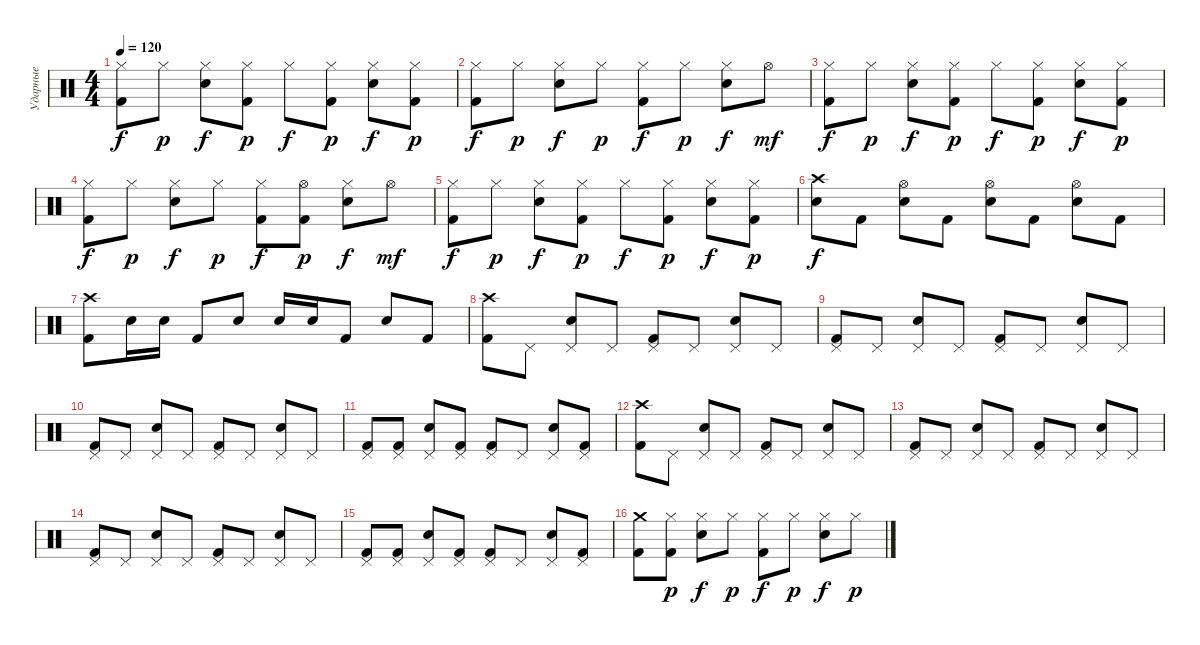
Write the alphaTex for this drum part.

\track ("Ударные" "Ударные") {instrument percussion}
\staff {score}
\articulation defaults
\ts (4 4)
\tempo 120
\clef neutral
\ks c
("Hi-Hat (closed)" "Kick (hit) 2").8{dy f} "Hi-Hat (closed)".8{dy p} ("Hi-Hat (closed)" "Electric Snare (hit)").8{dy f} ("Hi-Hat (closed)" "Kick (hit) 2").8{dy p} "Hi-Hat (closed)".8{dy f} ("Hi-Hat (closed)" "Kick (hit) 2").8{dy p} ("Hi-Hat (closed)" "Electric Snare (hit)").8{dy f} ("Hi-Hat (closed)" "Kick (hit) 2").8{dy p} |
("Hi-Hat (closed)" "Kick (hit) 2").8{dy f} "Hi-Hat (closed)".8{dy p} ("Hi-Hat (closed)" "Electric Snare (hit)").8{dy f} "Hi-Hat (closed)".8{dy p} ("Hi-Hat (closed)" "Kick (hit) 2").8{dy f} "Hi-Hat (closed)".8{dy p} ("Hi-Hat (closed)" "Electric Snare (hit)").8{dy f} "Hi-Hat (open)".8{dy mf} |
("Hi-Hat (closed)" "Kick (hit) 2").8{dy f} "Hi-Hat (closed)".8{dy p} ("Hi-Hat (closed)" "Electric Snare (hit)").8{dy f} ("Hi-Hat (closed)" "Kick (hit) 2").8{dy p} "Hi-Hat (closed)".8{dy f} ("Hi-Hat (closed)" "Kick (hit) 2").8{dy p} ("Hi-Hat (closed)" "Electric Snare (hit)").8{dy f} ("Hi-Hat (closed)" "Kick (hit) 2").8{dy p} |
("Hi-Hat (closed)" "Kick (hit) 2").8{dy f} "Hi-Hat (closed)".8{dy p} ("Hi-Hat (closed)" "Electric Snare (hit)").8{dy f} "Hi-Hat (closed)".8{dy p} ("Hi-Hat (closed)" "Kick (hit) 2").8{dy f} ("Hi-Hat (open)" "Kick (hit) 2").8{dy p} ("Hi-Hat (closed)" "Electric Snare (hit)").8{dy f} "Hi-Hat (open)".8{dy mf} |
("Hi-Hat (closed)" "Kick (hit) 2").8{dy f} "Hi-Hat (closed)".8{dy p} ("Hi-Hat (closed)" "Electric Snare (hit)").8{dy f} ("Hi-Hat (closed)" "Kick (hit) 2").8{dy p} "Hi-Hat (closed)".8{dy f} ("Hi-Hat (closed)" "Kick (hit) 2").8{dy p} ("Hi-Hat (closed)" "Electric Snare (hit)").8{dy f} ("Hi-Hat (closed)" "Kick (hit) 2").8{dy p} |
("Crash high (hit)" "Snare (hit) 2").8{dy f} "Kick (hit) 2".8 ("Hi-Hat (open)" "Snare (hit) 2").8 "Kick (hit) 2".8 ("Hi-Hat (open)" "Snare (hit) 2").8 "Kick (hit) 2".8 ("Hi-Hat (open)" "Snare (hit) 2").8 "Kick (hit) 2".8 |
("Crash high (hit)" "Kick (hit) 2").8 "Snare (hit) 2".16 "Snare (hit) 2".16 "Kick (hit) 2".8 "Snare (hit) 2".8 "Snare (hit) 2".16 "Snare (hit) 2".16 "Kick (hit) 2".8 "Snare (hit) 2".8 "Kick (hit) 2".8 |
("Crash high (hit)" "Kick (hit) 2").8 "Pedal Hi-Hat (hit)".8 ("Pedal Hi-Hat (hit)" "Electric Snare (hit)").8 "Pedal Hi-Hat (hit)".8 ("Pedal Hi-Hat (hit)" "Kick (hit) 2").8 "Pedal Hi-Hat (hit)".8 ("Pedal Hi-Hat (hit)" "Electric Snare (hit)").8 "Pedal Hi-Hat (hit)".8 |
("Pedal Hi-Hat (hit)" "Kick (hit) 2").8 "Pedal Hi-Hat (hit)".8 ("Pedal Hi-Hat (hit)" "Electric Snare (hit)").8 "Pedal Hi-Hat (hit)".8 ("Pedal Hi-Hat (hit)" "Kick (hit) 2").8 "Pedal Hi-Hat (hit)".8 ("Pedal Hi-Hat (hit)" "Electric Snare (hit)").8 "Pedal Hi-Hat (hit)".8 |
("Pedal Hi-Hat (hit)" "Kick (hit) 2").8 "Pedal Hi-Hat (hit)".8 ("Pedal Hi-Hat (hit)" "Electric Snare (hit)").8 "Pedal Hi-Hat (hit)".8 ("Pedal Hi-Hat (hit)" "Kick (hit) 2").8 "Pedal Hi-Hat (hit)".8 ("Pedal Hi-Hat (hit)" "Electric Snare (hit)").8 "Pedal Hi-Hat (hit)".8 |
("Pedal Hi-Hat (hit)" "Kick (hit) 2").8 ("Pedal Hi-Hat (hit)" "Kick (hit) 2").8 ("Pedal Hi-Hat (hit)" "Electric Snare (hit)").8 ("Pedal Hi-Hat (hit)" "Kick (hit) 2").8 ("Pedal Hi-Hat (hit)" "Kick (hit) 2").8 "Pedal Hi-Hat (hit)".8 ("Pedal Hi-Hat (hit)" "Electric Snare (hit)").8 ("Pedal Hi-Hat (hit)" "Kick (hit) 2").8 |
("Crash high (hit)" "Kick (hit) 2").8 "Pedal Hi-Hat (hit)".8 ("Pedal Hi-Hat (hit)" "Electric Snare (hit)").8 "Pedal Hi-Hat (hit)".8 ("Pedal Hi-Hat (hit)" "Kick (hit) 2").8 "Pedal Hi-Hat (hit)".8 ("Pedal Hi-Hat (hit)" "Electric Snare (hit)").8 "Pedal Hi-Hat (hit)".8 |
("Pedal Hi-Hat (hit)" "Kick (hit) 2").8 "Pedal Hi-Hat (hit)".8 ("Pedal Hi-Hat (hit)" "Electric Snare (hit)").8 "Pedal Hi-Hat (hit)".8 ("Pedal Hi-Hat (hit)" "Kick (hit) 2").8 "Pedal Hi-Hat (hit)".8 ("Pedal Hi-Hat (hit)" "Electric Snare (hit)").8 "Pedal Hi-Hat (hit)".8 |
("Pedal Hi-Hat (hit)" "Kick (hit) 2").8 "Pedal Hi-Hat (hit)".8 ("Pedal Hi-Hat (hit)" "Electric Snare (hit)").8 "Pedal Hi-Hat (hit)".8 ("Pedal Hi-Hat (hit)" "Kick (hit) 2").8 "Pedal Hi-Hat (hit)".8 ("Pedal Hi-Hat (hit)" "Electric Snare (hit)").8 "Pedal Hi-Hat (hit)".8 |
("Pedal Hi-Hat (hit)" "Kick (hit) 2").8 ("Pedal Hi-Hat (hit)" "Kick (hit) 2").8 ("Pedal Hi-Hat (hit)" "Electric Snare (hit)").8 ("Pedal Hi-Hat (hit)" "Kick (hit) 2").8 ("Pedal Hi-Hat (hit)" "Kick (hit) 2").8 "Pedal Hi-Hat (hit)".8 ("Pedal Hi-Hat (hit)" "Electric Snare (hit)").8 ("Pedal Hi-Hat (hit)" "Kick (hit) 2").8 |
("Crash medium (hit)" "Kick (hit) 2").8 ("Hi-Hat (closed)" "Kick (hit) 2").8{dy p} ("Hi-Hat (closed)" "Electric Snare (hit)").8{dy f} "Hi-Hat (closed)".8{dy p} ("Hi-Hat (closed)" "Kick (hit) 2").8{dy f} "Hi-Hat (closed)".8{dy p} ("Hi-Hat (closed)" "Electric Snare (hit)").8{dy f} "Hi-Hat (closed)".8{dy p}
